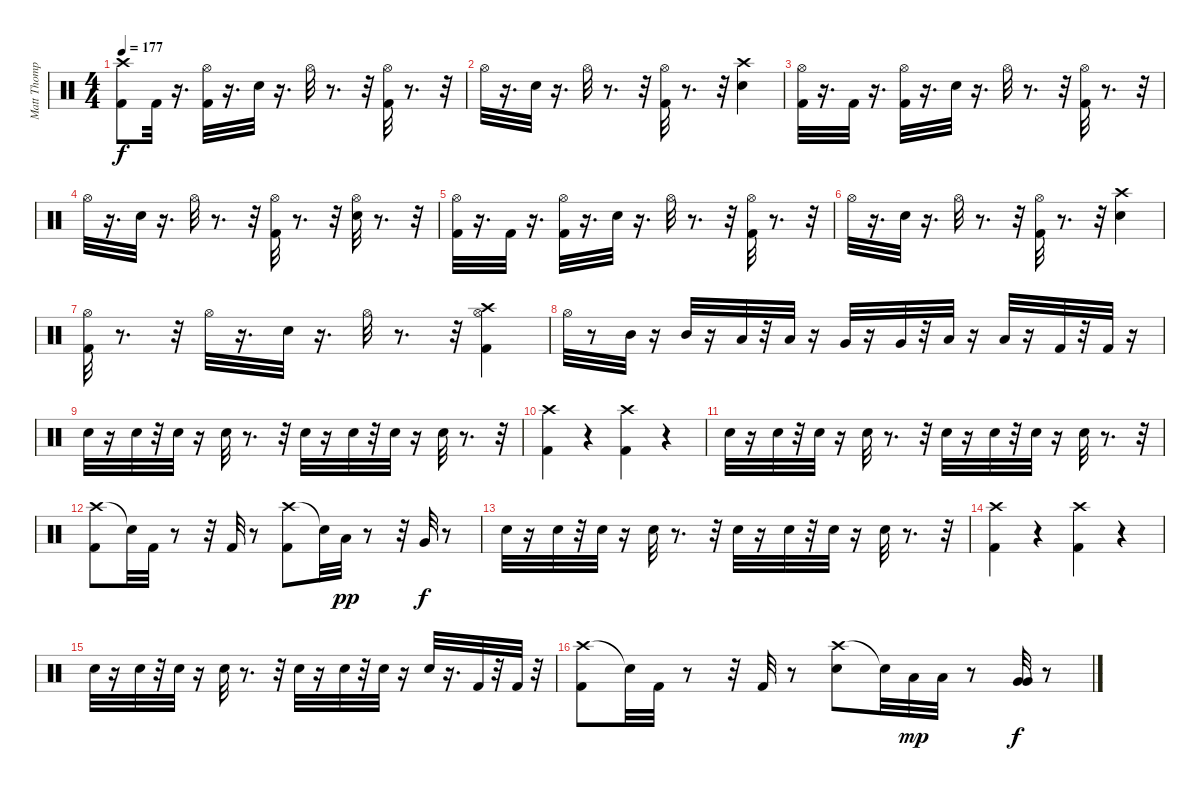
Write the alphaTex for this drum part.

\track ("Matt Thompson" "Matt Thomp") {instrument percussion}
\staff {score}
\articulation defaults
\ts (4 4)
\tempo 177
\clef neutral
\ks c
("Crash high (hit)" "Kick (hit) 2").8{dy f} "Kick (hit) 2".32 r.16{d} ("Hi-Hat (open)" "Kick (hit) 2").32 r.16{d} "Snare (hit) 2".32 r.16{d} "Hi-Hat (open)".32 r.8{d} r.32 ("Hi-Hat (open)" "Kick (hit) 2").32 r.8{d} r.32 |
"Hi-Hat (open)".32 r.16{d} "Snare (hit) 2".32 r.16{d} "Hi-Hat (open)".32 r.8{d} r.32 ("Hi-Hat (open)" "Kick (hit) 2").32 r.8{d} r.32 ("Crash high (hit)" "Snare (hit) 2").4 |
("Kick (hit) 2" "Hi-Hat (open)").32 r.16{d} "Kick (hit) 2".32 r.16{d} ("Kick (hit) 2" "Hi-Hat (open)").32 r.16{d} "Snare (hit) 2".32 r.16{d} "Hi-Hat (open)".32 r.8{d} r.32 ("Kick (hit) 2" "Hi-Hat (open)").32 r.8{d} r.32 |
"Hi-Hat (open)".32 r.16{d} "Snare (hit) 2".32 r.16{d} "Hi-Hat (open)".32 r.8{d} r.32 ("Hi-Hat (open)" "Kick (hit) 2").32 r.8{d} r.32 ("Hi-Hat (open)" "Snare (hit) 2").32 r.8{d} r.32 |
("Kick (hit) 2" "Hi-Hat (open)").32 r.16{d} "Kick (hit) 2".32 r.16{d} ("Kick (hit) 2" "Hi-Hat (open)").32 r.16{d} "Snare (hit) 2".32 r.16{d} "Hi-Hat (open)".32 r.8{d} r.32 ("Kick (hit) 2" "Hi-Hat (open)").32 r.8{d} r.32 |
"Hi-Hat (open)".32 r.16{d} "Snare (hit) 2".32 r.16{d} "Hi-Hat (open)".32 r.8{d} r.32 ("Kick (hit) 2" "Hi-Hat (open)").32 r.8{d} r.32 ("Crash high (hit)" "Snare (hit) 2").4 |
("Hi-Hat (open)" "Kick (hit) 2").32 r.8{d} r.32 "Hi-Hat (open)".32 r.16{d} "Snare (hit) 2".32 r.16{d} "Hi-Hat (open)".32 r.8{d} r.32 ("Crash high (hit)" "Hi-Hat (open)" "Kick (hit) 2").4 |
"Hi-Hat (open)".32 r.8 "Mid Tom (hit)".32 r.16 "Mid Tom (hit)".32 r.16 "Low Tom (hit)".32 r.32 "Low Tom (hit)".32 r.16 "Very Low Tom (hit)".32 r.16 "Very Low Tom (hit)".32 r.32 "Low Floor Tom (hit)".32 r.16 "Low Floor Tom (hit)".32 r.16 "Kick (hit) 2".32 r.32 "Kick (hit) 2".32 r.16 |
"Snare (hit) 2".32 r.16 "Snare (hit) 2".32 r.32 "Snare (hit) 2".32 r.16 "Snare (hit) 2".32 r.8{d} r.32 "Snare (hit) 2".32 r.16 "Snare (hit) 2".32 r.32 "Snare (hit) 2".32 r.16 "Snare (hit) 2".32 r.8{d} r.32 |
("Crash high (hit)" "Kick (hit) 2").4 r.4 ("Crash high (hit)" "Kick (hit) 2").4 r.4 |
"Snare (hit) 2".32 r.16 "Snare (hit) 2".32 r.32 "Snare (hit) 2".32 r.16 "Snare (hit) 2".32 r.8{d} r.32 "Snare (hit) 2".32 r.16 "Snare (hit) 2".32 r.32 "Snare (hit) 2".32 r.16 "Snare (hit) 2".32 r.8{d} r.32 |
("Crash high (hit)" "Kick (hit) 2").8 "Snare (hit)"{t}.32 "Kick (hit) 2".32 r.8 r.32 "Kick (hit) 2".32 r.8 ("Crash high (hit)" "Kick (hit) 2").8 "Snare (hit)"{t}.32 "Low Tom (hit)".32{dy pp} r.8 r.32 "Very Low Tom (hit)".32{dy f} r.8 |
"Snare (hit) 2".32 r.16 "Snare (hit) 2".32 r.32 "Snare (hit) 2".32 r.16 "Snare (hit) 2".32 r.8{d} r.32 "Snare (hit) 2".32 r.16 "Snare (hit) 2".32 r.32 "Snare (hit) 2".32 r.16 "Snare (hit) 2".32 r.8{d} r.32 |
("Crash high (hit)" "Kick (hit) 2").4 r.4 ("Crash high (hit)" "Kick (hit) 2").4 r.4 |
"Snare (hit) 2".32 r.16 "Snare (hit) 2".32 r.32 "Snare (hit) 2".32 r.16 "Snare (hit) 2".32 r.8{d} r.32 "Snare (hit) 2".32 r.16 "Snare (hit) 2".32 r.32 "Snare (hit) 2".32 r.16 "Snare (hit) 2".32 r.16{d} "Kick (hit) 2".32 r.32 "Kick (hit) 2".32 r.32 |
("Crash high (hit)" "Kick (hit) 2").8 "Snare (hit)"{t}.32 "Kick (hit) 2".32 r.8 r.32 "Kick (hit) 2".32 r.8 ("Crash high (hit)" "Snare (hit) 2").8 "Snare (hit)"{t}.32 "Low Tom (hit)".32{dy mp} "Low Tom (hit)".32 r.8 ("Very Low Tom (hit)" "Very Low Tom (hit)").32{dy f} r.8
